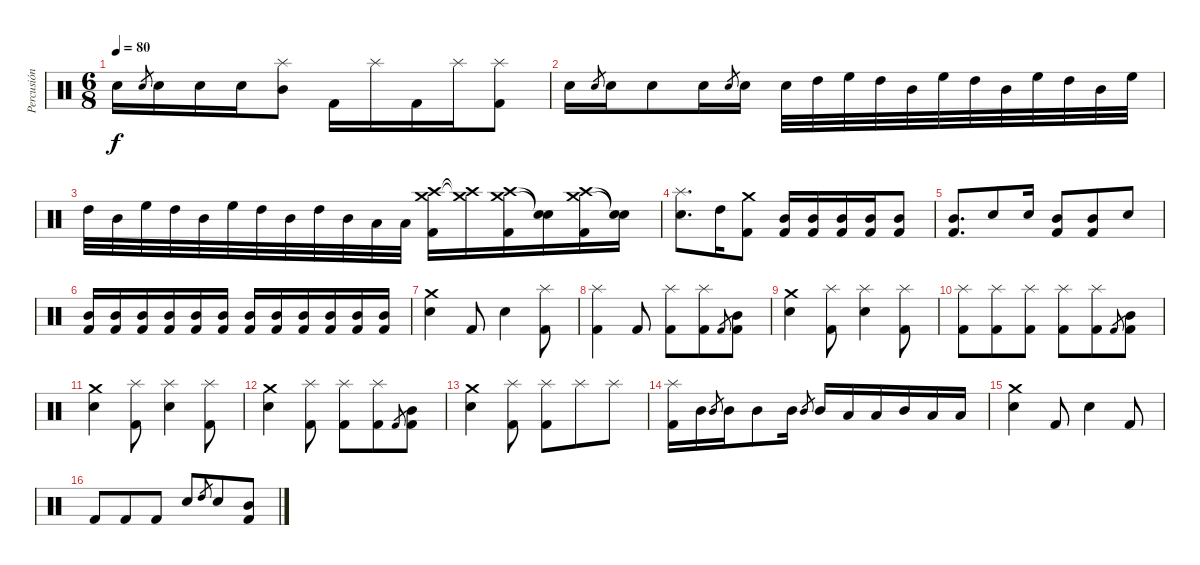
\track ("Percusión" "Percusión") {instrument percussion}
\staff {score}
\articulation defaults
\ts (6 8)
\tempo 80
\clef neutral
\ks c "Snare (hit) 2".16{dy f} "Snare (hit) 2".8{gr} "Snare (hit) 2".16 "Snare (hit) 2".16 "Snare (hit) 2".16
("Mid Tom (hit)" "Splash (hit)").8 "Kick (hit) 2".16 "Splash (hit)".16 "Kick (hit) 2".16 "Splash (hit)".16 ("Kick (hit) 2" "Splash (hit)").8 |
"Snare (hit) 2".16 "Snare (hit) 2".8{gr} "Snare (hit) 2".16 "Snare (hit) 2".8 "Snare (hit) 2".16 "Snare (hit) 2".8{gr} "Snare (hit) 2".16 "Snare (hit) 2".32 "High Tom (hit)".32 "High Floor Tom (hit)".32 "High Tom (hit)".32 "Mid Tom (hit)".32 "High Floor Tom (hit)".32 "High Tom (hit)".32 "Mid Tom (hit)".32 "High Floor Tom (hit)".32 "High Tom (hit)".32 "Mid Tom (hit)".32 "High Floor Tom (hit)".32 |
"High Tom (hit)".32 "Mid Tom (hit)".32 "High Floor Tom (hit)".32 "High Tom (hit)".32 "Mid Tom (hit)".32 "High Floor Tom (hit)".32 "High Tom (hit)".32 "Mid Tom (hit)".32 "High Tom (hit)".32 "Mid Tom (hit)".32 "Low Tom (hit)".32 "Low Tom (hit)".32 ("Crash medium (hit)" "Crash high (hit)" "Kick (hit) 2").16 ("Crash medium (hit)"{t} "Crash high (hit)"{t}).16 ("Crash medium (hit)" "Crash high (hit)" "Kick (hit) 2").16 ("Snare (hit)"{t} "Snare (hit)"{t}).16 ("Crash medium (hit)" "Crash high (hit)" "Kick (hit) 2").16 ("Snare (hit)"{t} "Snare (hit)"{t}).16 |
("Snare (hit) 2" "Splash (hit)").8{d} "High Tom (hit)".16 ("Kick (hit) 2" "Crash medium (hit)").8 ("Kick (hit) 2" "Mid Tom (hit)").16 ("Kick (hit) 2" "Mid Tom (hit)").16 ("Kick (hit) 2" "Mid Tom (hit)").16 ("Kick (hit) 2" "Mid Tom (hit)").16 ("Kick (hit) 2" "Mid Tom (hit)").8 |
("Kick (hit) 2" "Mid Tom (hit)").8{d} "Snare (hit) 2".8 "Snare (hit) 2".16 ("Kick (hit) 2" "Mid Tom (hit)").8 ("Kick (hit) 2" "Mid Tom (hit)").8 "Snare (hit) 2".8 |
("Kick (hit) 2" "Mid Tom (hit)").16 ("Kick (hit) 2" "Mid Tom (hit)").16 ("Kick (hit) 2" "Mid Tom (hit)").16 ("Kick (hit) 2" "Mid Tom (hit)").16 ("Kick (hit) 2" "Mid Tom (hit)").16 ("Kick (hit) 2" "Mid Tom (hit)").16 ("Kick (hit) 2" "Mid Tom (hit)").16 ("Kick (hit) 2" "Mid Tom (hit)").16 ("Kick (hit) 2" "Mid Tom (hit)").16 ("Kick (hit) 2" "Mid Tom (hit)").16 ("Kick (hit) 2" "Mid Tom (hit)").16 ("Kick (hit) 2" "Mid Tom (hit)").16 |
("Snare (hit) 2" "Crash medium (hit)").4 "Kick (hit) 2".8 "Snare (hit) 2".4 ("Kick (hit) 2" "Splash (hit)").8 |
("Kick (hit) 2" "Splash (hit)").4 "Kick (hit) 2".8 ("Kick (hit) 2" "Splash (hit)").8 ("Kick (hit) 2" "Splash (hit)").8 "Kick (hit) 2".8{gr} ("Kick (hit) 2" "Mid Tom (hit)").8 |
("Snare (hit) 2" "Crash medium (hit)").4 ("Kick (hit) 2" "Splash (hit)").8 ("Snare (hit) 2" "Splash (hit)").4 ("Kick (hit) 2" "Splash (hit)").8 |
("Kick (hit) 2" "Splash (hit)").8 ("Kick (hit) 2" "Splash (hit)").8 ("Kick (hit) 2" "Splash (hit)").8 ("Kick (hit) 2" "Splash (hit)").8 ("Kick (hit) 2" "Splash (hit)").8 "Kick (hit) 2".8{gr} ("Kick (hit) 2" "Mid Tom (hit)").8 |
("Snare (hit) 2" "Crash medium (hit)").4 ("Kick (hit) 2" "Splash (hit)").8 ("Snare (hit) 2" "Splash (hit)").4 ("Kick (hit) 2" "Splash (hit)").8 |
("Snare (hit) 2" "Crash medium (hit)").4 ("Kick (hit) 2" "Splash (hit)").8 ("Kick (hit) 2" "Splash (hit)").8 ("Kick (hit) 2" "Splash (hit)").8 "Kick (hit) 2".8{gr} ("Kick (hit) 2" "Mid Tom (hit)").8 |
("Snare (hit) 2" "Crash medium (hit)").4 ("Kick (hit) 2" "Splash (hit)").8 ("Kick (hit) 2" "Splash (hit)").8 "Splash (hit)".8 "Splash (hit)".8 |
("Kick (hit) 2" "Splash (hit)").16 "Mid Tom (hit)".16 "Mid Tom (hit)".8{gr} "Mid Tom (hit)".16 "Mid Tom (hit)".8 "Mid Tom (hit)".16 "Mid Tom (hit)".8{gr} "Mid Tom (hit)".16 "Low Tom (hit)".16 "Low Tom (hit)".16 "Mid Tom (hit)".16 "Low Tom (hit)".16 "Low Tom (hit)".16 |
("Snare (hit) 2" "Crash medium (hit)").4 "Kick (hit) 2".8 "Snare (hit) 2".4 "Kick (hit) 2".8 |
"Kick (hit) 2".8 "Kick (hit) 2".8 "Kick (hit) 2".8 "Snare (hit) 2".8 "High Tom (hit)".8{gr} "Snare (hit) 2".8 ("Kick (hit) 2" "Mid Tom (hit)").8
